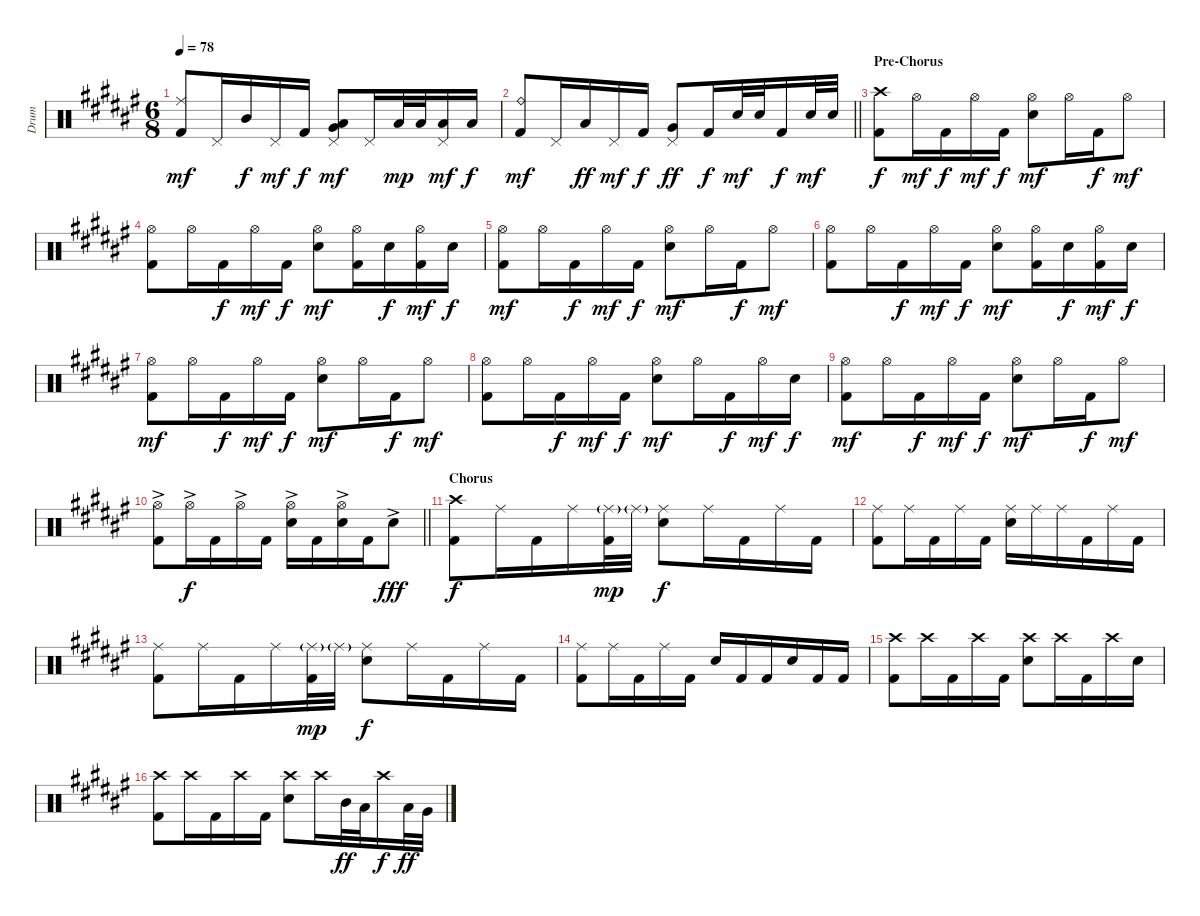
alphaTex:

\track ("Drum" "Drum") {instrument percussion}
\staff {score}
\articulation defaults
\ts (6 8)
\tempo 78
\clef neutral
\ks d#minor
("Ride (middle)" "Kick (hit) 2").8{dy mf} "Pedal Hi-Hat (hit)".16 "Mid Tom (hit)".16{dy f} "Pedal Hi-Hat (hit)".16{dy mf} "Kick (hit) 2".16{dy f} ("Pedal Hi-Hat (hit)" "Low Tom (hit)" "Very Low Tom (hit)").8{dy mf} "Pedal Hi-Hat (hit)".16 "Low Floor Tom (hit)".32{dy mp} "Low Floor Tom (hit)".32 ("Pedal Hi-Hat (hit)" "Low Floor Tom (hit)").16{dy mf} "Low Tom (hit)".16{dy f} |
\barLineRight lightlight
("Ride (bell)" "Kick (hit) 2").8{dy mf} "Pedal Hi-Hat (hit)".16 "Low Tom (hit)".16{dy ff} "Pedal Hi-Hat (hit)".16{dy mf} "Kick (hit) 2".16{dy f} ("Pedal Hi-Hat (hit)" "Very Low Tom (hit)").8{dy ff} "Kick (hit) 2".16{dy f} "Electric Snare (hit)".32{dy mf} "Electric Snare (hit)".32 "Kick (hit) 2".16{dy f} "Electric Snare (hit)".32{dy mf} "Electric Snare (hit)".32 |
\section ("" "Pre-Chorus")
("Crash high (hit)" "Kick (hit) 2").8{dy f} "Hi-Hat (open)".16{dy mf} "Kick (hit) 2".16{dy f} "Hi-Hat (open)".16{dy mf} "Kick (hit) 2".16{dy f} ("Hi-Hat (open)" "Electric Snare (hit)").8{dy mf} "Hi-Hat (open)".16 "Kick (hit) 2".16{dy f} "Hi-Hat (open)".8{dy mf} |
("Hi-Hat (open)" "Kick (hit) 2").8 "Hi-Hat (open)".16 "Kick (hit) 2".16{dy f} "Hi-Hat (open)".16{dy mf} "Kick (hit) 2".16{dy f} ("Hi-Hat (open)" "Electric Snare (hit)").8{dy mf} ("Hi-Hat (open)" "Kick (hit) 2").16 "Electric Snare (hit)".16{dy f} ("Hi-Hat (open)" "Kick (hit) 2").16{dy mf} "Electric Snare (hit)".16{dy f} |
("Hi-Hat (open)" "Kick (hit) 2").8{dy mf} "Hi-Hat (open)".16 "Kick (hit) 2".16{dy f} "Hi-Hat (open)".16{dy mf} "Kick (hit) 2".16{dy f} ("Hi-Hat (open)" "Electric Snare (hit)").8{dy mf} "Hi-Hat (open)".16 "Kick (hit) 2".16{dy f} "Hi-Hat (open)".8{dy mf} |
("Hi-Hat (open)" "Kick (hit) 2").8 "Hi-Hat (open)".16 "Kick (hit) 2".16{dy f} "Hi-Hat (open)".16{dy mf} "Kick (hit) 2".16{dy f} ("Hi-Hat (open)" "Electric Snare (hit)").8{dy mf} ("Hi-Hat (open)" "Kick (hit) 2").16 "Electric Snare (hit)".16{dy f} ("Hi-Hat (open)" "Kick (hit) 2").16{dy mf} "Electric Snare (hit)".16{dy f} |
("Hi-Hat (open)" "Kick (hit) 2").8{dy mf} "Hi-Hat (open)".16 "Kick (hit) 2".16{dy f} "Hi-Hat (open)".16{dy mf} "Kick (hit) 2".16{dy f} ("Hi-Hat (open)" "Electric Snare (hit)").8{dy mf} "Hi-Hat (open)".16 "Kick (hit) 2".16{dy f} "Hi-Hat (open)".8{dy mf} |
("Hi-Hat (open)" "Kick (hit) 2").8 "Hi-Hat (open)".16 "Kick (hit) 2".16{dy f} "Hi-Hat (open)".16{dy mf} "Kick (hit) 2".16{dy f} ("Hi-Hat (open)" "Electric Snare (hit)").8{dy mf} "Hi-Hat (open)".16 "Kick (hit) 2".16{dy f} "Hi-Hat (open)".16{dy mf} "Electric Snare (hit)".16{dy f} |
("Hi-Hat (open)" "Kick (hit) 2").8{dy mf} "Hi-Hat (open)".16 "Kick (hit) 2".16{dy f} "Hi-Hat (open)".16{dy mf} "Kick (hit) 2".16{dy f} ("Hi-Hat (open)" "Electric Snare (hit)").8{dy mf} "Hi-Hat (open)".16 "Kick (hit) 2".16{dy f} "Hi-Hat (open)".8{dy mf} |
\barLineRight lightlight
("Hi-Hat (open)"{ac} "Kick (hit) 2").8 "Hi-Hat (open)"{ac}.16{dy f} "Kick (hit) 2".16 "Hi-Hat (open)"{ac}.16 "Kick (hit) 2".16 ("Hi-Hat (open)"{ac} "Electric Snare (hit)").16 "Kick (hit) 2".16 ("Hi-Hat (open)"{ac} "Electric Snare (hit)").16 "Kick (hit) 2".16 "Electric Snare (hit)"{ac}.8{dy fff} |
\section ("" "Chorus")
("Crash high (hit)" "Kick (hit) 2").8{dy f} "Ride (middle)".16 "Kick (hit) 2".16 "Ride (middle)".16 ("Ride (middle)"{g} "Kick (hit) 2").32{dy mp} "Ride (middle)"{g}.32 ("Ride (middle)" "Electric Snare (hit)").8{dy f} "Ride (middle)".16 "Kick (hit) 2".16 "Ride (middle)".16 "Kick (hit) 2".16 |
("Ride (middle)" "Kick (hit) 2").8 "Ride (middle)".16 "Kick (hit) 2".16 "Ride (middle)".16 "Kick (hit) 2".16 ("Ride (middle)" "Electric Snare (hit)").16 "Ride (middle)".16 "Ride (middle)".16 "Kick (hit) 2".16 "Ride (middle)".16 "Kick (hit) 2".16 |
("Ride (middle)" "Kick (hit) 2").8 "Ride (middle)".16 "Kick (hit) 2".16 "Ride (middle)".16 ("Ride (middle)"{g} "Kick (hit) 2").32{dy mp} "Ride (middle)"{g}.32 ("Ride (middle)" "Electric Snare (hit)").8{dy f} "Ride (middle)".16 "Kick (hit) 2".16 "Ride (middle)".16 "Kick (hit) 2".16 |
("Ride (middle)" "Kick (hit) 2").8 "Ride (middle)".16 "Kick (hit) 2".16 "Ride (middle)".16 "Kick (hit) 2".16 "Electric Snare (hit)".16 "Kick (hit) 2".16 "Kick (hit) 2".16 "Electric Snare (hit)".16 "Kick (hit) 2".16 "Kick (hit) 2".16 |
("Crash high (hit)" "Kick (hit) 2").8 "Crash high (hit)".16 "Kick (hit) 2".16 "Crash high (hit)".16 "Kick (hit) 2".16 ("Crash high (hit)" "Electric Snare (hit)").8 "Crash high (hit)".16 "Kick (hit) 2".16 "Crash high (hit)".16 "Electric Snare (hit)".16 |
("Crash high (hit)" "Kick (hit) 2").8 "Crash high (hit)".16 "Kick (hit) 2".16 "Crash high (hit)".16 "Kick (hit) 2".16 ("Crash high (hit)" "Electric Snare (hit)").8 "Crash high (hit)".16 "Mid Tom (hit)".32{dy ff} "Low Tom (hit)".32 "Crash high (hit)".16{dy f} "Low Tom (hit)".32{dy ff} "Very Low Tom (hit)".32
